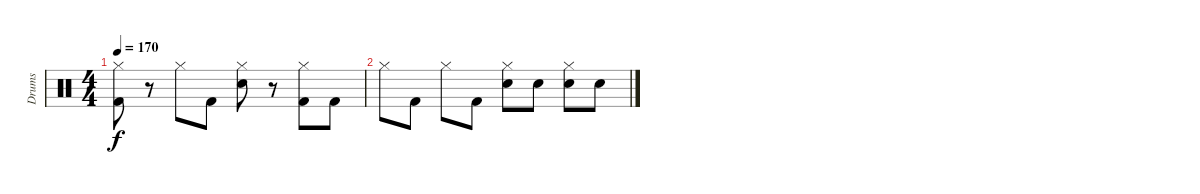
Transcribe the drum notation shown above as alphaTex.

\track ("Drums" "Drums") {instrument percussion}
\staff {score}
\articulation defaults
\ts (4 4)
\tempo 170
\clef neutral
\ks c
("Hi-Hat (closed)" "Kick (hit) 2").8{dy f} r.8 "Hi-Hat (closed)".8 "Kick (hit) 2".8 ("Hi-Hat (closed)" "Snare (hit) 2").8 r.8 ("Hi-Hat (closed)" "Kick (hit) 2").8 "Kick (hit) 2".8 |
"Hi-Hat (closed)".8 "Kick (hit) 2".8 "Hi-Hat (closed)".8 "Kick (hit) 2".8 ("Hi-Hat (closed)" "Snare (hit) 2").8 "Snare (hit) 2".8 ("Hi-Hat (closed)" "Snare (hit) 2").8 "Snare (hit) 2".8
